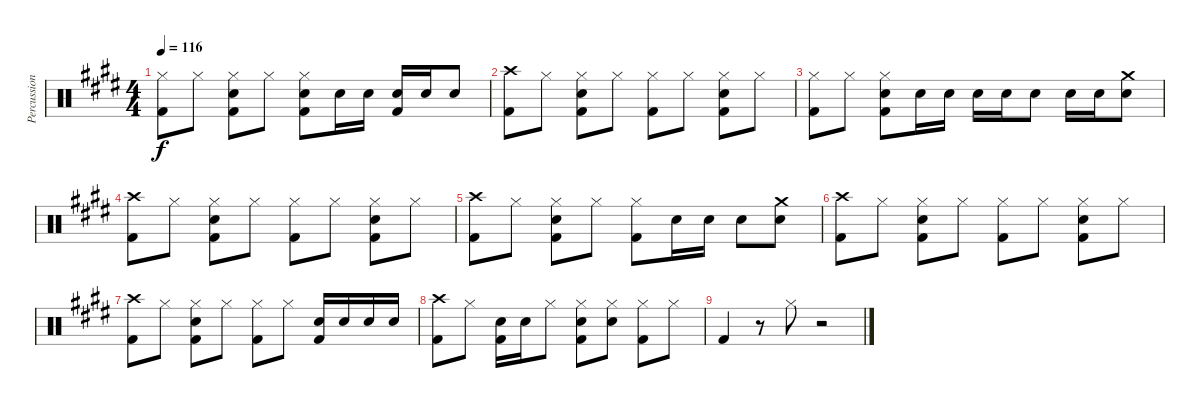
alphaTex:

\track ("Percussion" "Percussion") {instrument percussion}
\staff {score}
\articulation defaults
\ts (4 4)
\tempo 116
\clef neutral
\ks e
("Hi-Hat (closed)" "Kick (hit) 2").8{dy f} "Hi-Hat (closed)".8 ("Hi-Hat (closed)" "Snare (hit) 2" "Kick (hit) 2").8 "Hi-Hat (closed)".8 ("Hi-Hat (closed)" "Snare (hit) 2" "Kick (hit) 2").8 "Snare (hit) 2".16 "Snare (hit) 2".16 ("Snare (hit) 2" "Kick (hit) 2").16 "Snare (hit) 2".16 "Snare (hit) 2".8 |
("Crash high (hit)" "Kick (hit) 2").8 "Hi-Hat (closed)".8 ("Hi-Hat (closed)" "Snare (hit) 2" "Kick (hit) 2").8 "Hi-Hat (closed)".8 ("Hi-Hat (closed)" "Kick (hit) 2").8 "Hi-Hat (closed)".8 ("Hi-Hat (closed)" "Snare (hit) 2" "Kick (hit) 2").8 "Hi-Hat (closed)".8 |
("Hi-Hat (closed)" "Kick (hit) 2").8 "Hi-Hat (closed)".8 ("Hi-Hat (closed)" "Snare (hit) 2" "Kick (hit) 2").8 "Snare (hit) 2".16 "Snare (hit) 2".16 "Snare (hit) 2".16 "Snare (hit) 2".16 "Snare (hit) 2".8 "Snare (hit) 2".16 "Snare (hit) 2".16 ("Crash medium (hit)" "Snare (hit) 2").8 |
("Crash high (hit)" "Kick (hit) 2").8 "Hi-Hat (closed)".8 ("Hi-Hat (closed)" "Snare (hit) 2" "Kick (hit) 2").8 "Hi-Hat (closed)".8 ("Hi-Hat (closed)" "Kick (hit) 2").8 "Hi-Hat (closed)".8 ("Hi-Hat (closed)" "Snare (hit) 2" "Kick (hit) 2").8 "Hi-Hat (closed)".8 |
("Crash high (hit)" "Kick (hit) 2").8 "Hi-Hat (closed)".8 ("Hi-Hat (closed)" "Snare (hit) 2" "Kick (hit) 2").8 "Hi-Hat (closed)".8 ("Hi-Hat (closed)" "Kick (hit) 2").8 "Snare (hit) 2".16 "Snare (hit) 2".16 "Snare (hit) 2".8 ("Crash medium (hit)" "Snare (hit) 2").8 |
("Crash high (hit)" "Kick (hit) 2").8 "Hi-Hat (closed)".8 ("Hi-Hat (closed)" "Snare (hit) 2" "Kick (hit) 2").8 "Hi-Hat (closed)".8 ("Hi-Hat (closed)" "Kick (hit) 2").8 "Hi-Hat (closed)".8 ("Hi-Hat (closed)" "Snare (hit) 2" "Kick (hit) 2").8 "Hi-Hat (closed)".8 |
("Crash high (hit)" "Kick (hit) 2").8 "Hi-Hat (closed)".8 ("Hi-Hat (closed)" "Snare (hit) 2" "Kick (hit) 2").8 "Hi-Hat (closed)".8 ("Hi-Hat (closed)" "Kick (hit) 2").8 "Hi-Hat (closed)".8 ("Snare (hit) 2" "Kick (hit) 2").16 "Snare (hit) 2".16 "Snare (hit) 2".16 "Snare (hit) 2".16 |
("Crash high (hit)" "Kick (hit) 2").8 "Hi-Hat (closed)".8 ("Snare (hit) 2" "Kick (hit) 2").16 "Snare (hit) 2".16 "Hi-Hat (closed)".8 ("Hi-Hat (closed)" "Snare (hit) 2" "Kick (hit) 2").8 ("Hi-Hat (closed)" "Snare (hit) 2").8 ("Hi-Hat (closed)" "Kick (hit) 2").8 "Hi-Hat (closed)".8 |
"Kick (hit) 2".4 r.8 "Hi-Hat (closed)".8 r.2
